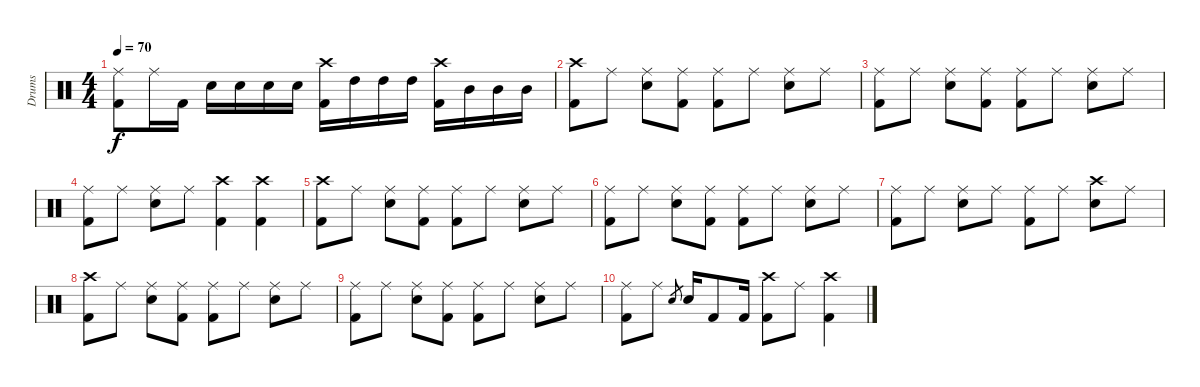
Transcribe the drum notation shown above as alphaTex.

\track ("Drums" "Drums") {instrument percussion}
\staff {score}
\articulation defaults
\ts (4 4)
\tempo 70
\clef neutral
\ks c
("Ride (middle)" "Kick (hit) 2").8{dy f} "Ride (middle)".16 "Kick (hit) 2".16 "Electric Snare (hit)".16 "Electric Snare (hit)".16 "Electric Snare (hit)".16 "Electric Snare (hit)".16 ("Crash high (hit)" "Kick (hit) 2").16 "High Tom (hit)".16 "High Tom (hit)".16 "High Tom (hit)".16 ("Crash high (hit)" "Kick (hit) 2").16 "Mid Tom (hit)".16 "Mid Tom (hit)".16 "Mid Tom (hit)".16 |
("Crash high (hit)" "Kick (hit) 2").8 "Ride (middle)".8 ("Ride (middle)" "Electric Snare (hit)").8 ("Ride (middle)" "Kick (hit) 2").8 ("Ride (middle)" "Kick (hit) 2").8 "Ride (middle)".8 ("Ride (middle)" "Electric Snare (hit)").8 "Ride (middle)".8 |
("Ride (middle)" "Kick (hit) 2").8 "Ride (middle)".8 ("Ride (middle)" "Electric Snare (hit)").8 ("Ride (middle)" "Kick (hit) 2").8 ("Ride (middle)" "Kick (hit) 2").8 "Ride (middle)".8 ("Ride (middle)" "Electric Snare (hit)").8 "Ride (middle)".8 |
("Ride (middle)" "Kick (hit) 2").8 "Ride (middle)".8 ("Ride (middle)" "Electric Snare (hit)").8 "Ride (middle)".8 ("Crash high (hit)" "Kick (hit) 2").4 ("Crash high (hit)" "Kick (hit) 2").4 |
("Crash high (hit)" "Kick (hit) 2").8 "Ride (middle)".8 ("Ride (middle)" "Electric Snare (hit)").8 ("Ride (middle)" "Kick (hit) 2").8 ("Ride (middle)" "Kick (hit) 2").8 "Ride (middle)".8 ("Ride (middle)" "Electric Snare (hit)").8 "Ride (middle)".8 |
("Ride (middle)" "Kick (hit) 2").8 "Ride (middle)".8 ("Ride (middle)" "Electric Snare (hit)").8 ("Ride (middle)" "Kick (hit) 2").8 ("Ride (middle)" "Kick (hit) 2").8 "Ride (middle)".8 ("Ride (middle)" "Electric Snare (hit)").8 "Ride (middle)".8 |
("Ride (middle)" "Kick (hit) 2").8 "Ride (middle)".8 ("Ride (middle)" "Electric Snare (hit)").8 "Ride (middle)".8 ("Ride (middle)" "Kick (hit) 2").8 "Ride (middle)".8 ("Crash high (hit)" "Electric Snare (hit)").8 "Ride (middle)".8 |
("Crash high (hit)" "Kick (hit) 2").8 "Ride (middle)".8 ("Ride (middle)" "Electric Snare (hit)").8 ("Ride (middle)" "Kick (hit) 2").8 ("Ride (middle)" "Kick (hit) 2").8 "Ride (middle)".8 ("Ride (middle)" "Electric Snare (hit)").8 "Ride (middle)".8 |
("Ride (middle)" "Kick (hit) 2").8 "Ride (middle)".8 ("Ride (middle)" "Electric Snare (hit)").8 ("Ride (middle)" "Kick (hit) 2").8 ("Ride (middle)" "Kick (hit) 2").8 "Ride (middle)".8 ("Ride (middle)" "Electric Snare (hit)").8 "Ride (middle)".8 |
("Ride (middle)" "Kick (hit) 2").8 "Ride (middle)".8 "Electric Snare (hit)".8{gr} "Electric Snare (hit)".16 "Kick (hit) 2".8 "Kick (hit) 2".16 ("Crash high (hit)" "Kick (hit) 2").8 "Ride (middle)".8 ("Crash high (hit)" "Kick (hit) 2").4
